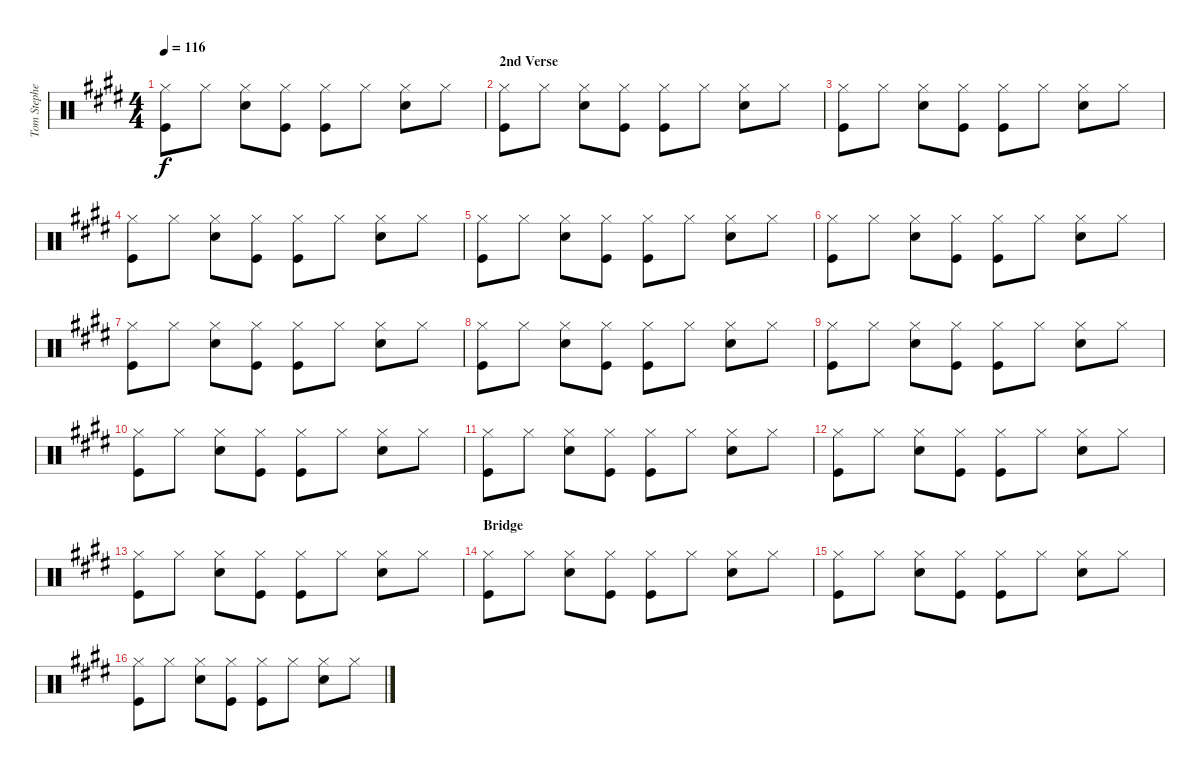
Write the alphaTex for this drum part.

\track ("Tom Stephen" "Tom Stephe") {instrument percussion}
\staff {score}
\articulation defaults
\ts (4 4)
\tempo 116
\clef neutral
\ks e
("Kick (hit)" "Hi-Hat (closed)").8{dy f} "Hi-Hat (closed)".8 ("Snare (hit) 2" "Hi-Hat (closed)").8 ("Kick (hit)" "Hi-Hat (closed)").8 ("Kick (hit)" "Hi-Hat (closed)").8 "Hi-Hat (closed)".8 ("Snare (hit) 2" "Hi-Hat (closed)").8 "Hi-Hat (closed)".8 |
\section ("" "2nd Verse")
("Kick (hit)" "Hi-Hat (closed)").8 "Hi-Hat (closed)".8 ("Snare (hit) 2" "Hi-Hat (closed)").8 ("Kick (hit)" "Hi-Hat (closed)").8 ("Kick (hit)" "Hi-Hat (closed)").8 "Hi-Hat (closed)".8 ("Snare (hit) 2" "Hi-Hat (closed)").8 "Hi-Hat (closed)".8 |
("Kick (hit)" "Hi-Hat (closed)").8 "Hi-Hat (closed)".8 ("Snare (hit) 2" "Hi-Hat (closed)").8 ("Kick (hit)" "Hi-Hat (closed)").8 ("Kick (hit)" "Hi-Hat (closed)").8 "Hi-Hat (closed)".8 ("Snare (hit) 2" "Hi-Hat (closed)").8 "Hi-Hat (closed)".8 |
("Kick (hit)" "Hi-Hat (closed)").8 "Hi-Hat (closed)".8 ("Snare (hit) 2" "Hi-Hat (closed)").8 ("Kick (hit)" "Hi-Hat (closed)").8 ("Kick (hit)" "Hi-Hat (closed)").8 "Hi-Hat (closed)".8 ("Snare (hit) 2" "Hi-Hat (closed)").8 "Hi-Hat (closed)".8 |
("Kick (hit)" "Hi-Hat (closed)").8 "Hi-Hat (closed)".8 ("Snare (hit) 2" "Hi-Hat (closed)").8 ("Kick (hit)" "Hi-Hat (closed)").8 ("Kick (hit)" "Hi-Hat (closed)").8 "Hi-Hat (closed)".8 ("Snare (hit) 2" "Hi-Hat (closed)").8 "Hi-Hat (closed)".8 |
("Kick (hit)" "Hi-Hat (closed)").8 "Hi-Hat (closed)".8 ("Snare (hit) 2" "Hi-Hat (closed)").8 ("Kick (hit)" "Hi-Hat (closed)").8 ("Kick (hit)" "Hi-Hat (closed)").8 "Hi-Hat (closed)".8 ("Snare (hit) 2" "Hi-Hat (closed)").8 "Hi-Hat (closed)".8 |
("Kick (hit)" "Hi-Hat (closed)").8 "Hi-Hat (closed)".8 ("Snare (hit) 2" "Hi-Hat (closed)").8 ("Kick (hit)" "Hi-Hat (closed)").8 ("Kick (hit)" "Hi-Hat (closed)").8 "Hi-Hat (closed)".8 ("Snare (hit) 2" "Hi-Hat (closed)").8 "Hi-Hat (closed)".8 |
("Kick (hit)" "Hi-Hat (closed)").8 "Hi-Hat (closed)".8 ("Snare (hit) 2" "Hi-Hat (closed)").8 ("Kick (hit)" "Hi-Hat (closed)").8 ("Kick (hit)" "Hi-Hat (closed)").8 "Hi-Hat (closed)".8 ("Snare (hit) 2" "Hi-Hat (closed)").8 "Hi-Hat (closed)".8 |
("Kick (hit)" "Hi-Hat (closed)").8 "Hi-Hat (closed)".8 ("Snare (hit) 2" "Hi-Hat (closed)").8 ("Kick (hit)" "Hi-Hat (closed)").8 ("Kick (hit)" "Hi-Hat (closed)").8 "Hi-Hat (closed)".8 ("Snare (hit) 2" "Hi-Hat (closed)").8 "Hi-Hat (closed)".8 |
("Kick (hit)" "Hi-Hat (closed)").8 "Hi-Hat (closed)".8 ("Snare (hit) 2" "Hi-Hat (closed)").8 ("Kick (hit)" "Hi-Hat (closed)").8 ("Kick (hit)" "Hi-Hat (closed)").8 "Hi-Hat (closed)".8 ("Snare (hit) 2" "Hi-Hat (closed)").8 "Hi-Hat (closed)".8 |
("Kick (hit)" "Hi-Hat (closed)").8 "Hi-Hat (closed)".8 ("Snare (hit) 2" "Hi-Hat (closed)").8 ("Kick (hit)" "Hi-Hat (closed)").8 ("Kick (hit)" "Hi-Hat (closed)").8 "Hi-Hat (closed)".8 ("Snare (hit) 2" "Hi-Hat (closed)").8 "Hi-Hat (closed)".8 |
("Kick (hit)" "Hi-Hat (closed)").8 "Hi-Hat (closed)".8 ("Snare (hit) 2" "Hi-Hat (closed)").8 ("Kick (hit)" "Hi-Hat (closed)").8 ("Kick (hit)" "Hi-Hat (closed)").8 "Hi-Hat (closed)".8 ("Snare (hit) 2" "Hi-Hat (closed)").8 "Hi-Hat (closed)".8 |
("Kick (hit)" "Hi-Hat (closed)").8 "Hi-Hat (closed)".8 ("Snare (hit) 2" "Hi-Hat (closed)").8 ("Kick (hit)" "Hi-Hat (closed)").8 ("Kick (hit)" "Hi-Hat (closed)").8 "Hi-Hat (closed)".8 ("Snare (hit) 2" "Hi-Hat (closed)").8 "Hi-Hat (closed)".8 |
\section ("" "Bridge")
("Kick (hit)" "Hi-Hat (closed)").8 "Hi-Hat (closed)".8 ("Snare (hit) 2" "Hi-Hat (closed)").8 ("Kick (hit)" "Hi-Hat (closed)").8 ("Kick (hit)" "Hi-Hat (closed)").8 "Hi-Hat (closed)".8 ("Snare (hit) 2" "Hi-Hat (closed)").8 "Hi-Hat (closed)".8 |
("Kick (hit)" "Hi-Hat (closed)").8 "Hi-Hat (closed)".8 ("Snare (hit) 2" "Hi-Hat (closed)").8 ("Kick (hit)" "Hi-Hat (closed)").8 ("Kick (hit)" "Hi-Hat (closed)").8 "Hi-Hat (closed)".8 ("Snare (hit) 2" "Hi-Hat (closed)").8 "Hi-Hat (closed)".8 |
("Kick (hit)" "Hi-Hat (closed)").8 "Hi-Hat (closed)".8 ("Snare (hit) 2" "Hi-Hat (closed)").8 ("Kick (hit)" "Hi-Hat (closed)").8 ("Kick (hit)" "Hi-Hat (closed)").8 "Hi-Hat (closed)".8 ("Snare (hit) 2" "Hi-Hat (closed)").8 "Hi-Hat (closed)".8
